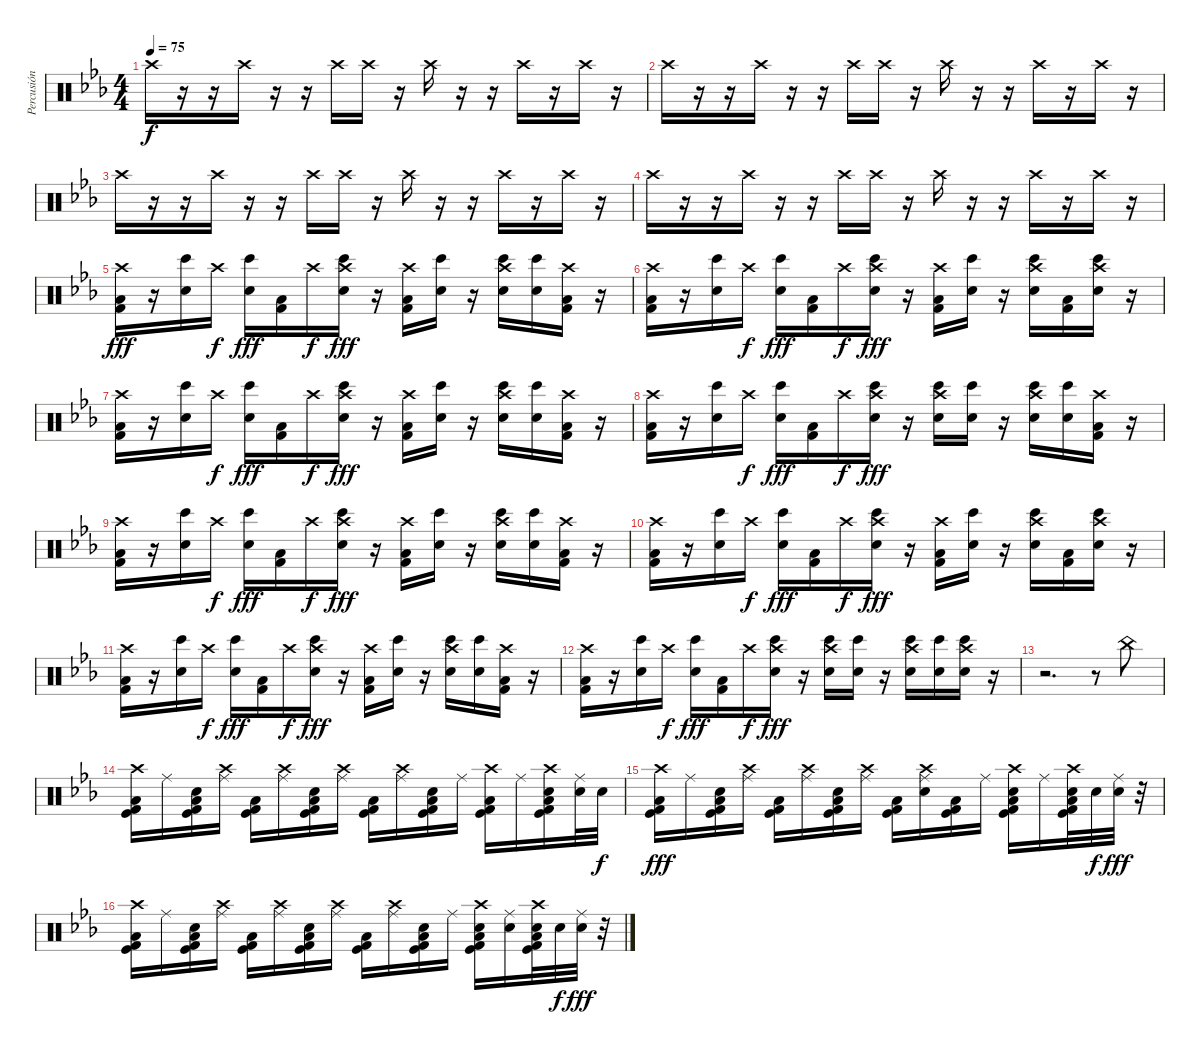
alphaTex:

\track ("Percusión" "Percusión") {instrument percussion}
\staff {score}
\articulation defaults
\ts (4 4)
\tempo 75
\clef neutral
\ks eb "Crash high (hit)".16{dy f}
r.16 r.16 "Crash high (hit)".16 r.16 r.16 "Crash high (hit)".16 "Crash high (hit)".16 r.16 "Crash high (hit)".16 r.16 r.16 "Crash high (hit)".16 r.16 "Crash high (hit)".16 r.16 |
"Crash high (hit)".16 r.16 r.16 "Crash high (hit)".16 r.16 r.16 "Crash high (hit)".16 "Crash high (hit)".16 r.16 "Crash high (hit)".16 r.16 r.16 "Crash high (hit)".16 r.16 "Crash high (hit)".16 r.16 |
"Crash high (hit)".16 r.16 r.16 "Crash high (hit)".16 r.16 r.16 "Crash high (hit)".16 "Crash high (hit)".16 r.16 "Crash high (hit)".16 r.16 r.16 "Crash high (hit)".16 r.16 "Crash high (hit)".16 r.16 |
"Crash high (hit)".16 r.16 r.16 "Crash high (hit)".16 r.16 r.16 "Crash high (hit)".16 "Crash high (hit)".16 r.16 "Crash high (hit)".16 r.16 r.16 "Crash high (hit)".16 r.16 "Crash high (hit)".16 r.16 |
("Crash high (hit)" "Low Floor Tom (hit)" "Kick (hit) 2").16{dy fff} r.16 ("Snare (hit) 2" "Bongo High (hit)").16 "Crash high (hit)".16{dy f} ("Snare (hit) 2" "Bongo High (hit)").16{dy fff} ("Low Floor Tom (hit)" "Kick (hit) 2").16 "Crash high (hit)".16{dy f} ("Crash high (hit)" "Snare (hit) 2" "Bongo High (hit)").16{dy fff} r.16 ("Crash high (hit)" "Low Floor Tom (hit)" "Kick (hit) 2").16 ("Snare (hit) 2" "Bongo High (hit)").16 r.16 ("Crash high (hit)" "Snare (hit) 2" "Bongo High (hit)").16 ("Snare (hit) 2" "Bongo High (hit)").16 ("Crash high (hit)" "Low Floor Tom (hit)" "Kick (hit) 2").16 r.16 |
("Crash high (hit)" "Low Floor Tom (hit)" "Kick (hit) 2").16 r.16 ("Snare (hit) 2" "Bongo High (hit)").16 "Crash high (hit)".16{dy f} ("Snare (hit) 2" "Bongo High (hit)").16{dy fff} ("Low Floor Tom (hit)" "Kick (hit) 2").16 "Crash high (hit)".16{dy f} ("Crash high (hit)" "Snare (hit) 2" "Bongo High (hit)").16{dy fff} r.16 ("Crash high (hit)" "Low Floor Tom (hit)" "Kick (hit) 2").16 ("Snare (hit) 2" "Bongo High (hit)").16 r.16 ("Crash high (hit)" "Snare (hit) 2" "Bongo High (hit)").16 ("Low Floor Tom (hit)" "Kick (hit) 2").16 ("Crash high (hit)" "Snare (hit) 2" "Bongo High (hit)").16 r.16 |
("Crash high (hit)" "Low Floor Tom (hit)" "Kick (hit) 2").16 r.16 ("Snare (hit) 2" "Bongo High (hit)").16 "Crash high (hit)".16{dy f} ("Snare (hit) 2" "Bongo High (hit)").16{dy fff} ("Low Floor Tom (hit)" "Kick (hit) 2").16 "Crash high (hit)".16{dy f} ("Crash high (hit)" "Snare (hit) 2" "Bongo High (hit)").16{dy fff} r.16 ("Crash high (hit)" "Low Floor Tom (hit)" "Kick (hit) 2").16 ("Snare (hit) 2" "Bongo High (hit)").16 r.16 ("Crash high (hit)" "Snare (hit) 2" "Bongo High (hit)").16 ("Snare (hit) 2" "Bongo High (hit)").16 ("Crash high (hit)" "Low Floor Tom (hit)" "Kick (hit) 2").16 r.16 |
("Crash high (hit)" "Low Floor Tom (hit)" "Kick (hit) 2").16 r.16 ("Snare (hit) 2" "Bongo High (hit)").16 "Crash high (hit)".16{dy f} ("Snare (hit) 2" "Bongo High (hit)").16{dy fff} ("Low Floor Tom (hit)" "Kick (hit) 2").16 "Crash high (hit)".16{dy f} ("Crash high (hit)" "Snare (hit) 2" "Bongo High (hit)").16{dy fff} r.16 ("Crash high (hit)" "Snare (hit) 2" "Bongo High (hit)").16 ("Snare (hit) 2" "Bongo High (hit)").16 r.16 ("Crash high (hit)" "Snare (hit) 2" "Bongo High (hit)").16 ("Snare (hit) 2" "Bongo High (hit)").16 ("Crash high (hit)" "Low Floor Tom (hit)" "Kick (hit) 2").16 r.16 |
("Crash high (hit)" "Low Floor Tom (hit)" "Kick (hit) 2").16 r.16 ("Snare (hit) 2" "Bongo High (hit)").16 "Crash high (hit)".16{dy f} ("Snare (hit) 2" "Bongo High (hit)").16{dy fff} ("Low Floor Tom (hit)" "Kick (hit) 2").16 "Crash high (hit)".16{dy f} ("Crash high (hit)" "Snare (hit) 2" "Bongo High (hit)").16{dy fff} r.16 ("Crash high (hit)" "Low Floor Tom (hit)" "Kick (hit) 2").16 ("Snare (hit) 2" "Bongo High (hit)").16 r.16 ("Crash high (hit)" "Snare (hit) 2" "Bongo High (hit)").16 ("Snare (hit) 2" "Bongo High (hit)").16 ("Crash high (hit)" "Low Floor Tom (hit)" "Kick (hit) 2").16 r.16 |
("Crash high (hit)" "Low Floor Tom (hit)" "Kick (hit) 2").16 r.16 ("Snare (hit) 2" "Bongo High (hit)").16 "Crash high (hit)".16{dy f} ("Snare (hit) 2" "Bongo High (hit)").16{dy fff} ("Low Floor Tom (hit)" "Kick (hit) 2").16 "Crash high (hit)".16{dy f} ("Crash high (hit)" "Snare (hit) 2" "Bongo High (hit)").16{dy fff} r.16 ("Crash high (hit)" "Low Floor Tom (hit)" "Kick (hit) 2").16 ("Snare (hit) 2" "Bongo High (hit)").16 r.16 ("Crash high (hit)" "Snare (hit) 2" "Bongo High (hit)").16 ("Low Floor Tom (hit)" "Kick (hit) 2").16 ("Crash high (hit)" "Snare (hit) 2" "Bongo High (hit)").16 r.16 |
("Crash high (hit)" "Low Floor Tom (hit)" "Kick (hit) 2").16 r.16 ("Snare (hit) 2" "Bongo High (hit)").16 "Crash high (hit)".16{dy f} ("Snare (hit) 2" "Bongo High (hit)").16{dy fff} ("Low Floor Tom (hit)" "Kick (hit) 2").16 "Crash high (hit)".16{dy f} ("Crash high (hit)" "Snare (hit) 2" "Bongo High (hit)").16{dy fff} r.16 ("Crash high (hit)" "Low Floor Tom (hit)" "Kick (hit) 2").16 ("Snare (hit) 2" "Bongo High (hit)").16 r.16 ("Crash high (hit)" "Snare (hit) 2" "Bongo High (hit)").16 ("Snare (hit) 2" "Bongo High (hit)").16 ("Crash high (hit)" "Low Floor Tom (hit)" "Kick (hit) 2").16 r.16 |
("Crash high (hit)" "Low Floor Tom (hit)" "Kick (hit) 2").16 r.16 ("Snare (hit) 2" "Bongo High (hit)").16 "Crash high (hit)".16{dy f} ("Snare (hit) 2" "Bongo High (hit)").16{dy fff} ("Low Floor Tom (hit)" "Kick (hit) 2").16 "Crash high (hit)".16{dy f} ("Crash high (hit)" "Snare (hit) 2" "Bongo High (hit)").16{dy fff} r.16 ("Crash high (hit)" "Snare (hit) 2" "Bongo High (hit)").16 ("Snare (hit) 2" "Bongo High (hit)").16 r.16 ("Crash high (hit)" "Snare (hit) 2" "Bongo High (hit)").16 ("Snare (hit) 2" "Bongo High (hit)").16 ("Crash high (hit)" "Snare (hit) 2" "Bongo High (hit)").16 r.16 |
r.2{d} r.8 "China (hit)".8 |
("Crash high (hit)" "Low Floor Tom (hit)" "Kick (hit) 2" "Kick (hit)").16 "Ride (middle)".16 ("Low Floor Tom (hit)" "Electric Snare (hit)" "Kick (hit) 2" "Kick (hit)").16 ("Crash high (hit)" "Ride (middle)").16 ("Low Floor Tom (hit)" "Kick (hit) 2" "Kick (hit)").16 ("Crash high (hit)" "Ride (middle)").16 ("Low Floor Tom (hit)" "Electric Snare (hit)" "Kick (hit) 2" "Kick (hit)").16 ("Crash high (hit)" "Ride (middle)").16 ("Low Floor Tom (hit)" "Kick (hit) 2" "Kick (hit)").16 ("Crash high (hit)" "Ride (middle)").16 ("Low Floor Tom (hit)" "Electric Snare (hit)" "Kick (hit) 2" "Kick (hit)").16 "Ride (middle)".16 ("Crash high (hit)" "Low Floor Tom (hit)" "Kick (hit) 2" "Kick (hit)").16 "Ride (middle)".16 ("Crash high (hit)" "Low Floor Tom (hit)" "Electric Snare (hit)" "Kick (hit) 2" "Kick (hit)").16 ("Ride (middle)" "Electric Snare (hit)").32 "Electric Snare (hit)".32{dy f} |
("Crash high (hit)" "Low Floor Tom (hit)" "Kick (hit) 2" "Kick (hit)").16{dy fff} "Ride (middle)".16 ("Low Floor Tom (hit)" "Electric Snare (hit)" "Kick (hit) 2" "Kick (hit)").16 ("Crash high (hit)" "Ride (middle)").16 ("Low Floor Tom (hit)" "Kick (hit) 2" "Kick (hit)").16 ("Crash high (hit)" "Ride (middle)").16 ("Low Floor Tom (hit)" "Electric Snare (hit)" "Kick (hit) 2" "Kick (hit)").16 ("Crash high (hit)" "Ride (middle)").16 ("Low Floor Tom (hit)" "Kick (hit) 2" "Kick (hit)").16 ("Crash high (hit)" "Ride (middle)" "Electric Snare (hit)").16 ("Low Floor Tom (hit)" "Kick (hit) 2" "Kick (hit)").16 "Ride (middle)".16 ("Crash high (hit)" "Low Floor Tom (hit)" "Electric Snare (hit)" "Kick (hit) 2" "Kick (hit)").16 "Ride (middle)".16 ("Crash high (hit)" "Low Floor Tom (hit)" "Electric Snare (hit)" "Kick (hit) 2" "Kick (hit)").32 "Electric Snare (hit)".32{dy f} ("Ride (middle)" "Electric Snare (hit)").32{dy fff} r.32 |
("Crash high (hit)" "Low Floor Tom (hit)" "Kick (hit) 2" "Kick (hit)").16 "Ride (middle)".16 ("Low Floor Tom (hit)" "Electric Snare (hit)" "Kick (hit) 2" "Kick (hit)").16 ("Crash high (hit)" "Ride (middle)").16 ("Low Floor Tom (hit)" "Kick (hit) 2" "Kick (hit)").16 ("Crash high (hit)" "Ride (middle)").16 ("Low Floor Tom (hit)" "Electric Snare (hit)" "Kick (hit) 2" "Kick (hit)").16 ("Crash high (hit)" "Ride (middle)").16 ("Low Floor Tom (hit)" "Kick (hit) 2" "Kick (hit)").16 ("Crash high (hit)" "Ride (middle)").16 ("Low Floor Tom (hit)" "Electric Snare (hit)" "Kick (hit) 2" "Kick (hit)").16 "Ride (middle)".16 ("Crash high (hit)" "Low Floor Tom (hit)" "Electric Snare (hit)" "Kick (hit) 2" "Kick (hit)").16 ("Ride (middle)" "Electric Snare (hit)").16 ("Crash high (hit)" "Low Floor Tom (hit)" "Electric Snare (hit)" "Kick (hit) 2" "Kick (hit)").32 "Electric Snare (hit)".32{dy f} ("Ride (middle)" "Electric Snare (hit)").32{dy fff} r.32
